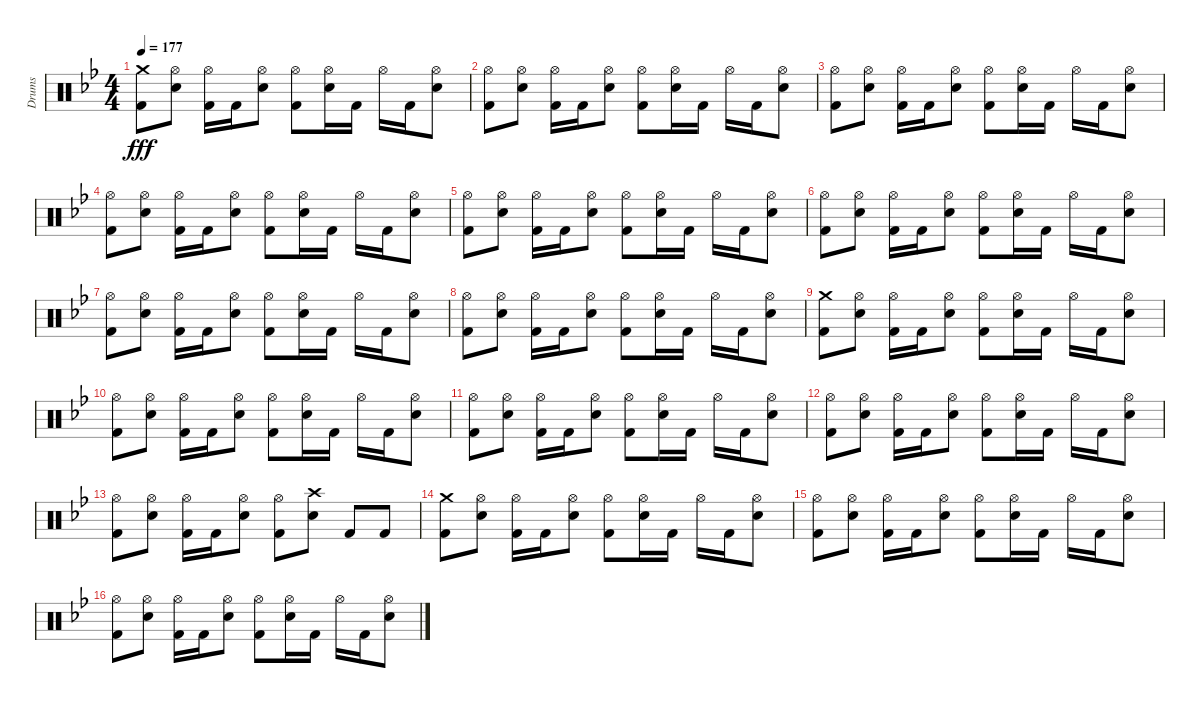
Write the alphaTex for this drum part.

\track ("Drums" "Drums") {instrument percussion}
\staff {score}
\articulation defaults
\ts (4 4)
\tempo 177
\clef neutral
\ks bb
("Crash medium (hit)" "Kick (hit) 2").8{dy fff} ("Hi-Hat (open)" "Snare (hit) 2").8 ("Hi-Hat (open)" "Kick (hit) 2").16 "Kick (hit) 2".16 ("Hi-Hat (open)" "Snare (hit) 2").8 ("Hi-Hat (open)" "Kick (hit) 2").8 ("Hi-Hat (open)" "Snare (hit) 2").16 "Kick (hit) 2".16 "Hi-Hat (open)".16 "Kick (hit) 2".16 ("Hi-Hat (open)" "Snare (hit) 2").8 |
("Hi-Hat (open)" "Kick (hit) 2").8 ("Hi-Hat (open)" "Snare (hit) 2").8 ("Hi-Hat (open)" "Kick (hit) 2").16 "Kick (hit) 2".16 ("Hi-Hat (open)" "Snare (hit) 2").8 ("Hi-Hat (open)" "Kick (hit) 2").8 ("Hi-Hat (open)" "Snare (hit) 2").16 "Kick (hit) 2".16 "Hi-Hat (open)".16 "Kick (hit) 2".16 ("Hi-Hat (open)" "Snare (hit) 2").8 |
("Hi-Hat (open)" "Kick (hit) 2").8 ("Hi-Hat (open)" "Snare (hit) 2").8 ("Hi-Hat (open)" "Kick (hit) 2").16 "Kick (hit) 2".16 ("Hi-Hat (open)" "Snare (hit) 2").8 ("Hi-Hat (open)" "Kick (hit) 2").8 ("Hi-Hat (open)" "Snare (hit) 2").16 "Kick (hit) 2".16 "Hi-Hat (open)".16 "Kick (hit) 2".16 ("Hi-Hat (open)" "Snare (hit) 2").8 |
("Hi-Hat (open)" "Kick (hit) 2").8 ("Hi-Hat (open)" "Snare (hit) 2").8 ("Hi-Hat (open)" "Kick (hit) 2").16 "Kick (hit) 2".16 ("Hi-Hat (open)" "Snare (hit) 2").8 ("Hi-Hat (open)" "Kick (hit) 2").8 ("Hi-Hat (open)" "Snare (hit) 2").16 "Kick (hit) 2".16 "Hi-Hat (open)".16 "Kick (hit) 2".16 ("Hi-Hat (open)" "Snare (hit) 2").8 |
("Hi-Hat (open)" "Kick (hit) 2").8 ("Hi-Hat (open)" "Snare (hit) 2").8 ("Hi-Hat (open)" "Kick (hit) 2").16 "Kick (hit) 2".16 ("Hi-Hat (open)" "Snare (hit) 2").8 ("Hi-Hat (open)" "Kick (hit) 2").8 ("Hi-Hat (open)" "Snare (hit) 2").16 "Kick (hit) 2".16 "Hi-Hat (open)".16 "Kick (hit) 2".16 ("Hi-Hat (open)" "Snare (hit) 2").8 |
("Hi-Hat (open)" "Kick (hit) 2").8 ("Hi-Hat (open)" "Snare (hit) 2").8 ("Hi-Hat (open)" "Kick (hit) 2").16 "Kick (hit) 2".16 ("Hi-Hat (open)" "Snare (hit) 2").8 ("Hi-Hat (open)" "Kick (hit) 2").8 ("Hi-Hat (open)" "Snare (hit) 2").16 "Kick (hit) 2".16 "Hi-Hat (open)".16 "Kick (hit) 2".16 ("Hi-Hat (open)" "Snare (hit) 2").8 |
("Hi-Hat (open)" "Kick (hit) 2").8 ("Hi-Hat (open)" "Snare (hit) 2").8 ("Hi-Hat (open)" "Kick (hit) 2").16 "Kick (hit) 2".16 ("Hi-Hat (open)" "Snare (hit) 2").8 ("Hi-Hat (open)" "Kick (hit) 2").8 ("Hi-Hat (open)" "Snare (hit) 2").16 "Kick (hit) 2".16 "Hi-Hat (open)".16 "Kick (hit) 2".16 ("Hi-Hat (open)" "Snare (hit) 2").8 |
("Hi-Hat (open)" "Kick (hit) 2").8 ("Hi-Hat (open)" "Snare (hit) 2").8 ("Hi-Hat (open)" "Kick (hit) 2").16 "Kick (hit) 2".16 ("Hi-Hat (open)" "Snare (hit) 2").8 ("Hi-Hat (open)" "Kick (hit) 2").8 ("Hi-Hat (open)" "Snare (hit) 2").16 "Kick (hit) 2".16 "Hi-Hat (open)".16 "Kick (hit) 2".16 ("Hi-Hat (open)" "Snare (hit) 2").8 |
("Crash medium (hit)" "Kick (hit) 2").8 ("Hi-Hat (open)" "Snare (hit) 2").8 ("Hi-Hat (open)" "Kick (hit) 2").16 "Kick (hit) 2".16 ("Hi-Hat (open)" "Snare (hit) 2").8 ("Hi-Hat (open)" "Kick (hit) 2").8 ("Hi-Hat (open)" "Snare (hit) 2").16 "Kick (hit) 2".16 "Hi-Hat (open)".16 "Kick (hit) 2".16 ("Hi-Hat (open)" "Snare (hit) 2").8 |
("Hi-Hat (open)" "Kick (hit) 2").8 ("Hi-Hat (open)" "Snare (hit) 2").8 ("Hi-Hat (open)" "Kick (hit) 2").16 "Kick (hit) 2".16 ("Hi-Hat (open)" "Snare (hit) 2").8 ("Hi-Hat (open)" "Kick (hit) 2").8 ("Hi-Hat (open)" "Snare (hit) 2").16 "Kick (hit) 2".16 "Hi-Hat (open)".16 "Kick (hit) 2".16 ("Hi-Hat (open)" "Snare (hit) 2").8 |
("Hi-Hat (open)" "Kick (hit) 2").8 ("Hi-Hat (open)" "Snare (hit) 2").8 ("Hi-Hat (open)" "Kick (hit) 2").16 "Kick (hit) 2".16 ("Hi-Hat (open)" "Snare (hit) 2").8 ("Hi-Hat (open)" "Kick (hit) 2").8 ("Hi-Hat (open)" "Snare (hit) 2").16 "Kick (hit) 2".16 "Hi-Hat (open)".16 "Kick (hit) 2".16 ("Hi-Hat (open)" "Snare (hit) 2").8 |
("Hi-Hat (open)" "Kick (hit) 2").8 ("Hi-Hat (open)" "Snare (hit) 2").8 ("Hi-Hat (open)" "Kick (hit) 2").16 "Kick (hit) 2".16 ("Hi-Hat (open)" "Snare (hit) 2").8 ("Hi-Hat (open)" "Kick (hit) 2").8 ("Hi-Hat (open)" "Snare (hit) 2").16 "Kick (hit) 2".16 "Hi-Hat (open)".16 "Kick (hit) 2".16 ("Hi-Hat (open)" "Snare (hit) 2").8 |
("Hi-Hat (open)" "Kick (hit) 2").8 ("Hi-Hat (open)" "Snare (hit) 2").8 ("Hi-Hat (open)" "Kick (hit) 2").16 "Kick (hit) 2".16 ("Hi-Hat (open)" "Snare (hit) 2").8 ("Hi-Hat (open)" "Kick (hit) 2").8 ("Crash high (hit)" "Snare (hit) 2").8 "Kick (hit) 2".8 "Kick (hit) 2".8 |
("Crash medium (hit)" "Kick (hit) 2").8 ("Hi-Hat (open)" "Snare (hit) 2").8 ("Hi-Hat (open)" "Kick (hit) 2").16 "Kick (hit) 2".16 ("Hi-Hat (open)" "Snare (hit) 2").8 ("Hi-Hat (open)" "Kick (hit) 2").8 ("Hi-Hat (open)" "Snare (hit) 2").16 "Kick (hit) 2".16 "Hi-Hat (open)".16 "Kick (hit) 2".16 ("Hi-Hat (open)" "Snare (hit) 2").8 |
("Hi-Hat (open)" "Kick (hit) 2").8 ("Hi-Hat (open)" "Snare (hit) 2").8 ("Hi-Hat (open)" "Kick (hit) 2").16 "Kick (hit) 2".16 ("Hi-Hat (open)" "Snare (hit) 2").8 ("Hi-Hat (open)" "Kick (hit) 2").8 ("Hi-Hat (open)" "Snare (hit) 2").16 "Kick (hit) 2".16 "Hi-Hat (open)".16 "Kick (hit) 2".16 ("Hi-Hat (open)" "Snare (hit) 2").8 |
("Hi-Hat (open)" "Kick (hit) 2").8 ("Hi-Hat (open)" "Snare (hit) 2").8 ("Hi-Hat (open)" "Kick (hit) 2").16 "Kick (hit) 2".16 ("Hi-Hat (open)" "Snare (hit) 2").8 ("Hi-Hat (open)" "Kick (hit) 2").8 ("Hi-Hat (open)" "Snare (hit) 2").16 "Kick (hit) 2".16 "Hi-Hat (open)".16 "Kick (hit) 2".16 ("Hi-Hat (open)" "Snare (hit) 2").8
